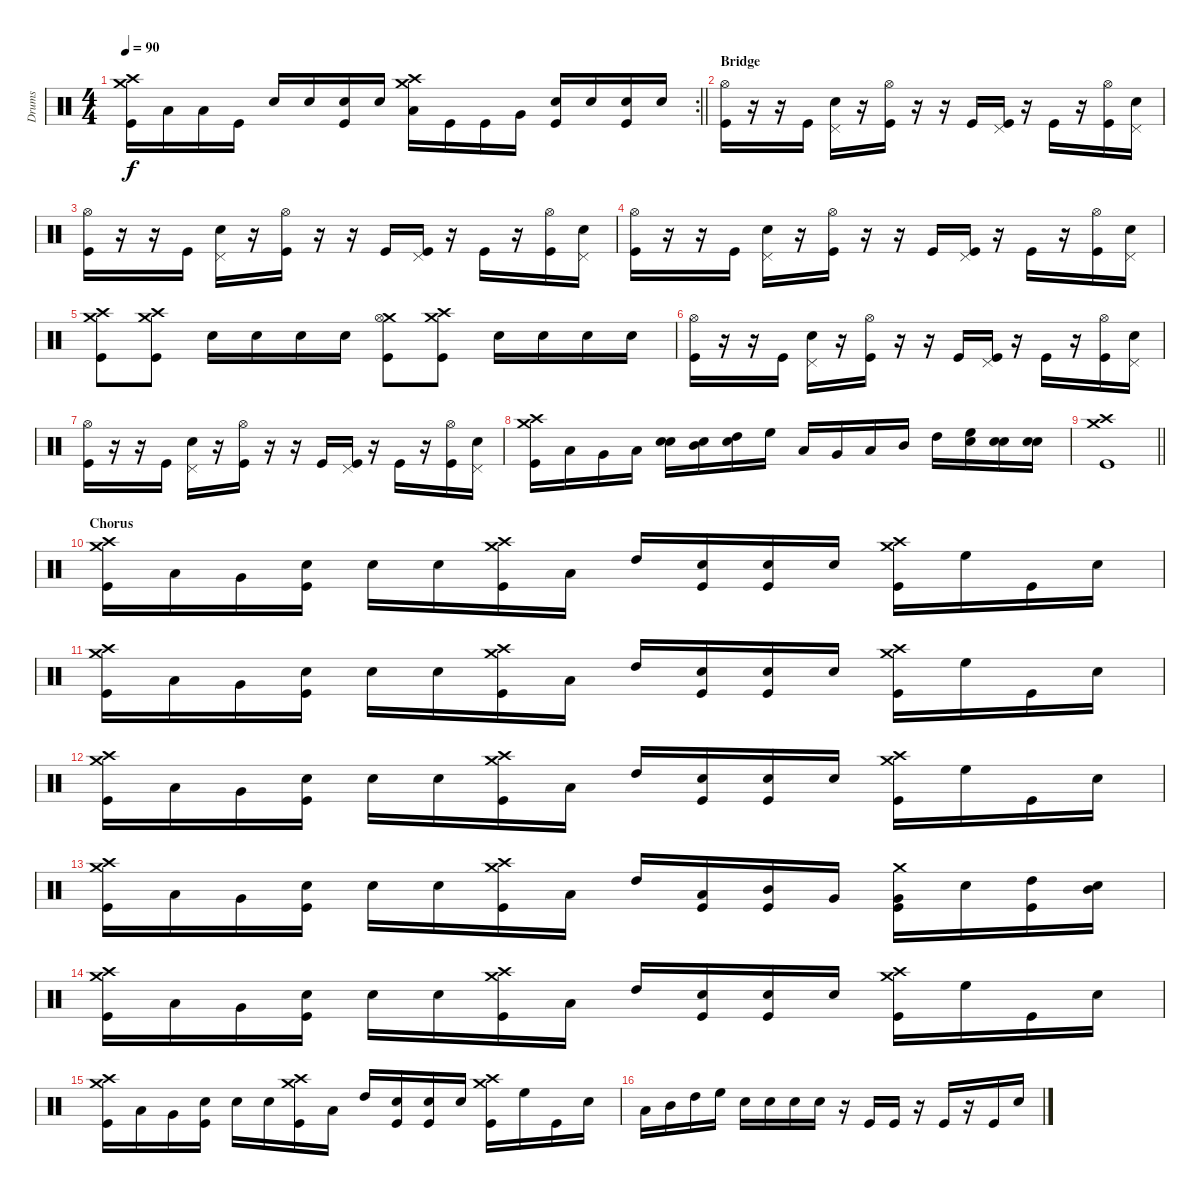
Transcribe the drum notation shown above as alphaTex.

\track ("Drums" "Drums") {instrument percussion}
\staff {score}
\articulation defaults
\rc 2
\ts (4 4)
\tempo 90
\clef neutral
\barLineRight lightlight
\ks c
("Crash medium (hit)" "Crash high (hit)" "Kick (hit)").16{dy f} "Low Tom (hit)".16 "Low Floor Tom (hit)".16 "Kick (hit)".16 "Snare (hit) 2".16 "Snare (hit) 2".16 ("Snare (hit) 2" "Kick (hit)").16 "Snare (hit) 2".16 ("Crash medium (hit)" "Crash high (hit)" "Low Floor Tom (hit)").16 "Kick (hit)".16 "Kick (hit)".16 "Very Low Tom (hit)".16 ("Snare (hit) 2" "Kick (hit)").16 "Snare (hit) 2".16 ("Snare (hit) 2" "Kick (hit)").16 "Snare (hit) 2".16 |
\section ("" "Bridge")
("Hi-Hat (open)" "Kick (hit)").16 r.16 r.16 "Kick (hit)".16 ("Pedal Hi-Hat (hit)" "Snare (hit) 2").16 r.16 ("Hi-Hat (open)" "Kick (hit)").16 r.16 r.16 "Kick (hit)".16 ("Pedal Hi-Hat (hit)" "Kick (hit)").16 r.16 "Kick (hit)".16 r.16 ("Hi-Hat (open)" "Kick (hit)").16 ("Pedal Hi-Hat (hit)" "Snare (hit) 2").16 |
("Hi-Hat (open)" "Kick (hit)").16 r.16 r.16 "Kick (hit)".16 ("Pedal Hi-Hat (hit)" "Snare (hit) 2").16 r.16 ("Hi-Hat (open)" "Kick (hit)").16 r.16 r.16 "Kick (hit)".16 ("Pedal Hi-Hat (hit)" "Kick (hit)").16 r.16 "Kick (hit)".16 r.16 ("Hi-Hat (open)" "Kick (hit)").16 ("Pedal Hi-Hat (hit)" "Snare (hit) 2").16 |
("Hi-Hat (open)" "Kick (hit)").16 r.16 r.16 "Kick (hit)".16 ("Pedal Hi-Hat (hit)" "Snare (hit) 2").16 r.16 ("Hi-Hat (open)" "Kick (hit)").16 r.16 r.16 "Kick (hit)".16 ("Pedal Hi-Hat (hit)" "Kick (hit)").16 r.16 "Kick (hit)".16 r.16 ("Hi-Hat (open)" "Kick (hit)").16 ("Pedal Hi-Hat (hit)" "Snare (hit) 2").16 |
("Crash medium (hit)" "Crash high (hit)" "Kick (hit)").8 ("Crash high (hit)" "Crash medium (hit)" "Kick (hit)").8 "Snare (hit) 2".16 "Snare (hit) 2".16 "Snare (hit) 2".16 "Snare (hit) 2".16 ("Crash medium (hit)" "Hi-Hat (open)" "Kick (hit)").8 ("Crash medium (hit)" "Crash high (hit)" "Kick (hit)").8 "Snare (hit) 2".16 "Snare (hit) 2".16 "Snare (hit) 2".16 "Snare (hit) 2".16 |
("Hi-Hat (open)" "Kick (hit)").16 r.16 r.16 "Kick (hit)".16 ("Pedal Hi-Hat (hit)" "Snare (hit) 2").16 r.16 ("Hi-Hat (open)" "Kick (hit)").16 r.16 r.16 "Kick (hit)".16 ("Pedal Hi-Hat (hit)" "Kick (hit)").16 r.16 "Kick (hit)".16 r.16 ("Hi-Hat (open)" "Kick (hit)").16 ("Pedal Hi-Hat (hit)" "Snare (hit) 2").16 |
("Hi-Hat (open)" "Kick (hit)").16 r.16 r.16 "Kick (hit)".16 ("Pedal Hi-Hat (hit)" "Snare (hit) 2").16 r.16 ("Hi-Hat (open)" "Kick (hit)").16 r.16 r.16 "Kick (hit)".16 ("Pedal Hi-Hat (hit)" "Kick (hit)").16 r.16 "Kick (hit)".16 r.16 ("Hi-Hat (open)" "Kick (hit)").16 ("Pedal Hi-Hat (hit)" "Snare (hit) 2").16 |
("Crash medium (hit)" "Crash high (hit)" "Kick (hit)").16 "Low Floor Tom (hit)".16 "Very Low Tom (hit)".16 "Low Tom (hit)".16 ("Snare (hit) 2" "Snare (hit) 2").16 ("Snare (hit) 2" "Mid Tom (hit)").16 ("Snare (hit) 2" "High Tom (hit)").16 "High Floor Tom (hit)".16 "Low Floor Tom (hit)".16 "Very Low Tom (hit)".16 "Low Tom (hit)".16 "Mid Tom (hit)".16 "High Tom (hit)".16 ("Snare (hit) 2" "High Floor Tom (hit)").16 ("Snare (hit) 2" "Snare (hit) 2").16 ("Snare (hit) 2" "Snare (hit) 2").16 |
\barLineRight lightlight
("Crash medium (hit)" "Crash high (hit)" "Kick (hit)").1 |
\section ("" "Chorus")
("Crash medium (hit)" "Crash high (hit)" "Kick (hit)").16 "Low Floor Tom (hit)".16 "Very Low Tom (hit)".16 ("Snare (hit) 2" "Kick (hit)").16 "Snare (hit) 2".16 "Snare (hit) 2".16 ("Crash medium (hit)" "Crash high (hit)" "Kick (hit)").16 "Low Tom (hit)".16 "High Tom (hit)".16 ("Snare (hit) 2" "Kick (hit)").16 ("Snare (hit) 2" "Kick (hit)").16 "Snare (hit) 2".16 ("Crash medium (hit)" "Crash high (hit)" "Kick (hit)").16 "High Floor Tom (hit)".16 "Kick (hit)".16 "Snare (hit) 2".16 |
("Crash medium (hit)" "Crash high (hit)" "Kick (hit)").16 "Low Floor Tom (hit)".16 "Very Low Tom (hit)".16 ("Snare (hit) 2" "Kick (hit)").16 "Snare (hit) 2".16 "Snare (hit) 2".16 ("Crash medium (hit)" "Crash high (hit)" "Kick (hit)").16 "Low Tom (hit)".16 "High Tom (hit)".16 ("Snare (hit) 2" "Kick (hit)").16 ("Snare (hit) 2" "Kick (hit)").16 "Snare (hit) 2".16 ("Crash medium (hit)" "Crash high (hit)" "Kick (hit)").16 "High Floor Tom (hit)".16 "Kick (hit)".16 "Snare (hit) 2".16 |
("Crash medium (hit)" "Crash high (hit)" "Kick (hit)").16 "Low Floor Tom (hit)".16 "Very Low Tom (hit)".16 ("Snare (hit) 2" "Kick (hit)").16 "Snare (hit) 2".16 "Snare (hit) 2".16 ("Crash medium (hit)" "Crash high (hit)" "Kick (hit)").16 "Low Tom (hit)".16 "High Tom (hit)".16 ("Snare (hit) 2" "Kick (hit)").16 ("Snare (hit) 2" "Kick (hit)").16 "Snare (hit) 2".16 ("Crash medium (hit)" "Crash high (hit)" "Kick (hit)").16 "High Floor Tom (hit)".16 "Kick (hit)".16 "Snare (hit) 2".16 |
("Crash medium (hit)" "Crash high (hit)" "Kick (hit)").16 "Low Floor Tom (hit)".16 "Very Low Tom (hit)".16 ("Snare (hit) 2" "Kick (hit)").16 "Snare (hit) 2".16 "Snare (hit) 2".16 ("Crash medium (hit)" "Crash high (hit)" "Kick (hit)").16 "Low Tom (hit)".16 "High Tom (hit)".16 ("Low Tom (hit)" "Kick (hit)").16 ("Mid Tom (hit)" "Kick (hit)").16 "Very Low Tom (hit)".16 ("Crash medium (hit)" "Very Low Tom (hit)" "Kick (hit)").16 "Snare (hit) 2".16 ("High Tom (hit)" "Kick (hit)").16 ("Mid Tom (hit)" "Snare (hit) 2").16 |
("Crash medium (hit)" "Crash high (hit)" "Kick (hit)").16 "Low Floor Tom (hit)".16 "Very Low Tom (hit)".16 ("Snare (hit) 2" "Kick (hit)").16 "Snare (hit) 2".16 "Snare (hit) 2".16 ("Crash medium (hit)" "Crash high (hit)" "Kick (hit)").16 "Low Tom (hit)".16 "High Tom (hit)".16 ("Snare (hit) 2" "Kick (hit)").16 ("Snare (hit) 2" "Kick (hit)").16 "Snare (hit) 2".16 ("Crash medium (hit)" "Crash high (hit)" "Kick (hit)").16 "High Floor Tom (hit)".16 "Kick (hit)".16 "Snare (hit) 2".16 |
("Crash medium (hit)" "Crash high (hit)" "Kick (hit)").16 "Low Floor Tom (hit)".16 "Very Low Tom (hit)".16 ("Snare (hit) 2" "Kick (hit)").16 "Snare (hit) 2".16 "Snare (hit) 2".16 ("Crash medium (hit)" "Crash high (hit)" "Kick (hit)").16 "Low Tom (hit)".16 "High Tom (hit)".16 ("Snare (hit) 2" "Kick (hit)").16 ("Snare (hit) 2" "Kick (hit)").16 "Snare (hit) 2".16 ("Crash medium (hit)" "Crash high (hit)" "Kick (hit)").16 "High Floor Tom (hit)".16 "Kick (hit)".16 "Snare (hit) 2".16 |
"Low Tom (hit)".16 "Mid Tom (hit)".16 "High Tom (hit)".16 "High Floor Tom (hit)".16 "Snare (hit) 2".16 "Snare (hit) 2".16 "Snare (hit) 2".16 "Snare (hit) 2".16 r.16 "Kick (hit)".16 "Kick (hit)".16 r.16 "Kick (hit)".16 r.16 "Kick (hit)".16 "Snare (hit) 2".16
